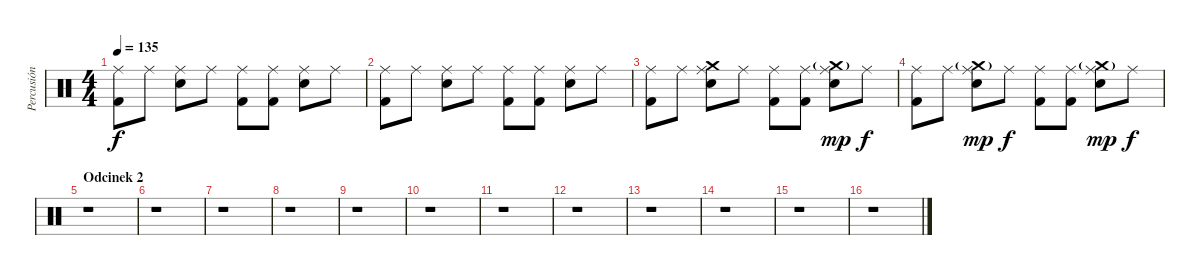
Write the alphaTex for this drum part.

\track ("Percusión" "Percusión") {instrument percussion}
\staff {score}
\articulation defaults
\ts (4 4)
\tempo 135
\clef neutral
\ks c
("Kick (hit) 2" "Ride (middle)").8{dy f} "Ride (middle)".8 ("Snare (hit) 2" "Ride (middle)").8 "Ride (middle)".8 ("Kick (hit) 2" "Ride (middle)").8 ("Kick (hit) 2" "Ride (middle)").8 ("Snare (hit) 2" "Ride (middle)").8 "Ride (middle)".8 |
("Kick (hit) 2" "Ride (middle)").8 "Ride (middle)".8 ("Snare (hit) 2" "Ride (middle)").8 "Ride (middle)".8 ("Kick (hit) 2" "Ride (middle)").8 ("Kick (hit) 2" "Ride (middle)").8 ("Snare (hit) 2" "Ride (middle)").8 "Ride (middle)".8 |
("Kick (hit) 2" "Ride (middle)").8 "Ride (middle)".8 ("Snare (hit) 2" "Ride (middle)" "Crash medium (hit)").8 "Ride (middle)".8 ("Kick (hit) 2" "Ride (middle)").8 ("Kick (hit) 2" "Ride (middle)").8 ("Snare (hit) 2" "Ride (middle)" "Crash medium (hit)"{g}).8{dy mp} "Ride (middle)".8{dy f} |
("Kick (hit) 2" "Ride (middle)").8 "Ride (middle)".8 ("Snare (hit) 2" "Ride (middle)" "Crash medium (hit)"{g}).8{dy mp} "Ride (middle)".8{dy f} ("Kick (hit) 2" "Ride (middle)").8 ("Kick (hit) 2" "Ride (middle)").8 ("Snare (hit) 2" "Ride (middle)" "Crash medium (hit)"{g}).8{dy mp} "Ride (middle)".8{dy f} |
\section ("" "Odcinek 2")
r.1 |
r.1 |
r.1 |
r.1 |
r.1 |
r.1 |
r.1 |
r.1 |
r.1 |
r.1 |
r.1 |
r.1
